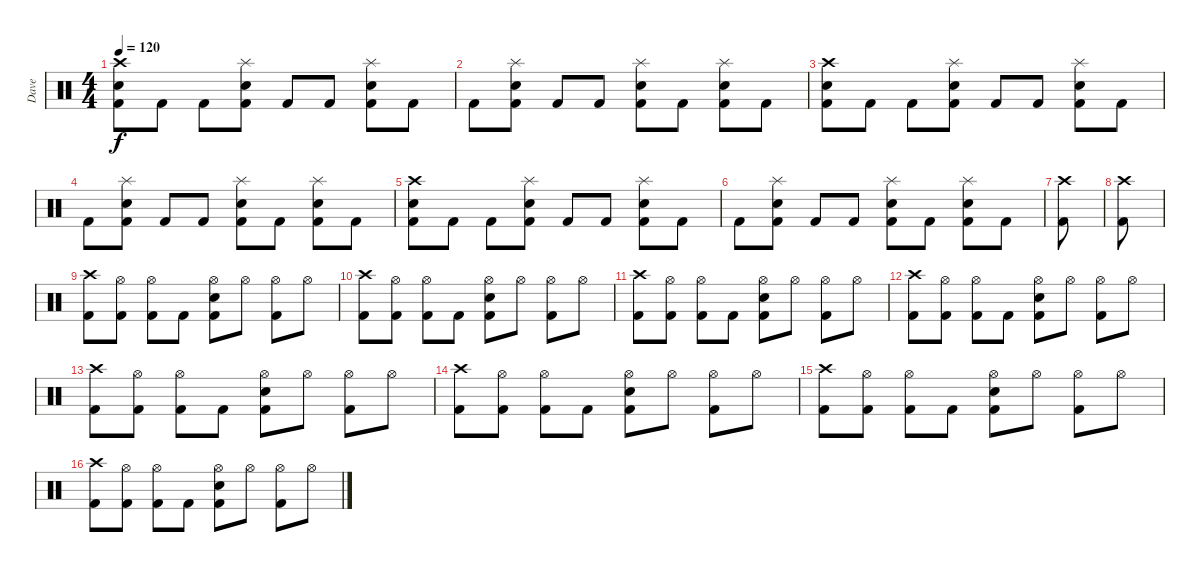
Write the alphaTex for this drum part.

\track ("Dave" "Dave") {instrument percussion}
\staff {score}
\articulation defaults
\ts (4 4)
\tempo 120
\clef neutral
\ks c
("Kick (hit) 2" "Snare (hit) 2" "Crash high (hit)").8{dy f} "Kick (hit) 2".8 "Kick (hit) 2".8 ("Kick (hit) 2" "Snare (hit) 2" "Splash (hit)").8 "Kick (hit) 2".8 "Kick (hit) 2".8 ("Kick (hit) 2" "Snare (hit) 2" "Splash (hit)").8 "Kick (hit) 2".8 |
"Kick (hit) 2".8 ("Kick (hit) 2" "Snare (hit) 2" "Splash (hit)").8 "Kick (hit) 2".8 "Kick (hit) 2".8 ("Kick (hit) 2" "Snare (hit) 2" "Splash (hit)").8 "Kick (hit) 2".8 ("Kick (hit) 2" "Snare (hit) 2" "Splash (hit)").8 "Kick (hit) 2".8 |
("Kick (hit) 2" "Snare (hit) 2" "Crash high (hit)").8 "Kick (hit) 2".8 "Kick (hit) 2".8 ("Kick (hit) 2" "Snare (hit) 2" "Splash (hit)").8 "Kick (hit) 2".8 "Kick (hit) 2".8 ("Kick (hit) 2" "Snare (hit) 2" "Splash (hit)").8 "Kick (hit) 2".8 |
"Kick (hit) 2".8 ("Kick (hit) 2" "Snare (hit) 2" "Splash (hit)").8 "Kick (hit) 2".8 "Kick (hit) 2".8 ("Kick (hit) 2" "Snare (hit) 2" "Splash (hit)").8 "Kick (hit) 2".8 ("Kick (hit) 2" "Snare (hit) 2" "Splash (hit)").8 "Kick (hit) 2".8 |
("Kick (hit) 2" "Snare (hit) 2" "Crash high (hit)").8 "Kick (hit) 2".8 "Kick (hit) 2".8 ("Kick (hit) 2" "Snare (hit) 2" "Splash (hit)").8 "Kick (hit) 2".8 "Kick (hit) 2".8 ("Kick (hit) 2" "Snare (hit) 2" "Splash (hit)").8 "Kick (hit) 2".8 |
"Kick (hit) 2".8 ("Kick (hit) 2" "Snare (hit) 2" "Splash (hit)").8 "Kick (hit) 2".8 "Kick (hit) 2".8 ("Kick (hit) 2" "Snare (hit) 2" "Splash (hit)").8 "Kick (hit) 2".8 ("Kick (hit) 2" "Snare (hit) 2" "Splash (hit)").8 "Kick (hit) 2".8 |
("Kick (hit) 2" "Crash high (hit)").8 |
("Kick (hit) 2" "Crash high (hit)").8 |
("Kick (hit) 2" "Crash high (hit)").8 ("Kick (hit) 2" "Hi-Hat (open)").8 ("Kick (hit) 2" "Hi-Hat (open)").8 "Kick (hit) 2".8 ("Kick (hit) 2" "Snare (hit) 2" "Hi-Hat (open)").8 "Hi-Hat (open)".8 ("Kick (hit) 2" "Hi-Hat (open)").8 "Hi-Hat (open)".8 |
("Kick (hit) 2" "Crash high (hit)").8 ("Kick (hit) 2" "Hi-Hat (open)").8 ("Kick (hit) 2" "Hi-Hat (open)").8 "Kick (hit) 2".8 ("Kick (hit) 2" "Snare (hit) 2" "Hi-Hat (open)").8 "Hi-Hat (open)".8 ("Kick (hit) 2" "Hi-Hat (open)").8 "Hi-Hat (open)".8 |
("Kick (hit) 2" "Crash high (hit)").8 ("Kick (hit) 2" "Hi-Hat (open)").8 ("Kick (hit) 2" "Hi-Hat (open)").8 "Kick (hit) 2".8 ("Kick (hit) 2" "Snare (hit) 2" "Hi-Hat (open)").8 "Hi-Hat (open)".8 ("Kick (hit) 2" "Hi-Hat (open)").8 "Hi-Hat (open)".8 |
("Kick (hit) 2" "Crash high (hit)").8 ("Kick (hit) 2" "Hi-Hat (open)").8 ("Kick (hit) 2" "Hi-Hat (open)").8 "Kick (hit) 2".8 ("Kick (hit) 2" "Snare (hit) 2" "Hi-Hat (open)").8 "Hi-Hat (open)".8 ("Kick (hit) 2" "Hi-Hat (open)").8 "Hi-Hat (open)".8 |
("Kick (hit) 2" "Crash high (hit)").8 ("Kick (hit) 2" "Hi-Hat (open)").8 ("Kick (hit) 2" "Hi-Hat (open)").8 "Kick (hit) 2".8 ("Kick (hit) 2" "Snare (hit) 2" "Hi-Hat (open)").8 "Hi-Hat (open)".8 ("Kick (hit) 2" "Hi-Hat (open)").8 "Hi-Hat (open)".8 |
("Kick (hit) 2" "Crash high (hit)").8 ("Kick (hit) 2" "Hi-Hat (open)").8 ("Kick (hit) 2" "Hi-Hat (open)").8 "Kick (hit) 2".8 ("Kick (hit) 2" "Snare (hit) 2" "Hi-Hat (open)").8 "Hi-Hat (open)".8 ("Kick (hit) 2" "Hi-Hat (open)").8 "Hi-Hat (open)".8 |
("Kick (hit) 2" "Crash high (hit)").8 ("Kick (hit) 2" "Hi-Hat (open)").8 ("Kick (hit) 2" "Hi-Hat (open)").8 "Kick (hit) 2".8 ("Kick (hit) 2" "Snare (hit) 2" "Hi-Hat (open)").8 "Hi-Hat (open)".8 ("Kick (hit) 2" "Hi-Hat (open)").8 "Hi-Hat (open)".8 |
("Kick (hit) 2" "Crash high (hit)").8 ("Kick (hit) 2" "Hi-Hat (open)").8 ("Kick (hit) 2" "Hi-Hat (open)").8 "Kick (hit) 2".8 ("Kick (hit) 2" "Snare (hit) 2" "Hi-Hat (open)").8 "Hi-Hat (open)".8 ("Kick (hit) 2" "Hi-Hat (open)").8 "Hi-Hat (open)".8
